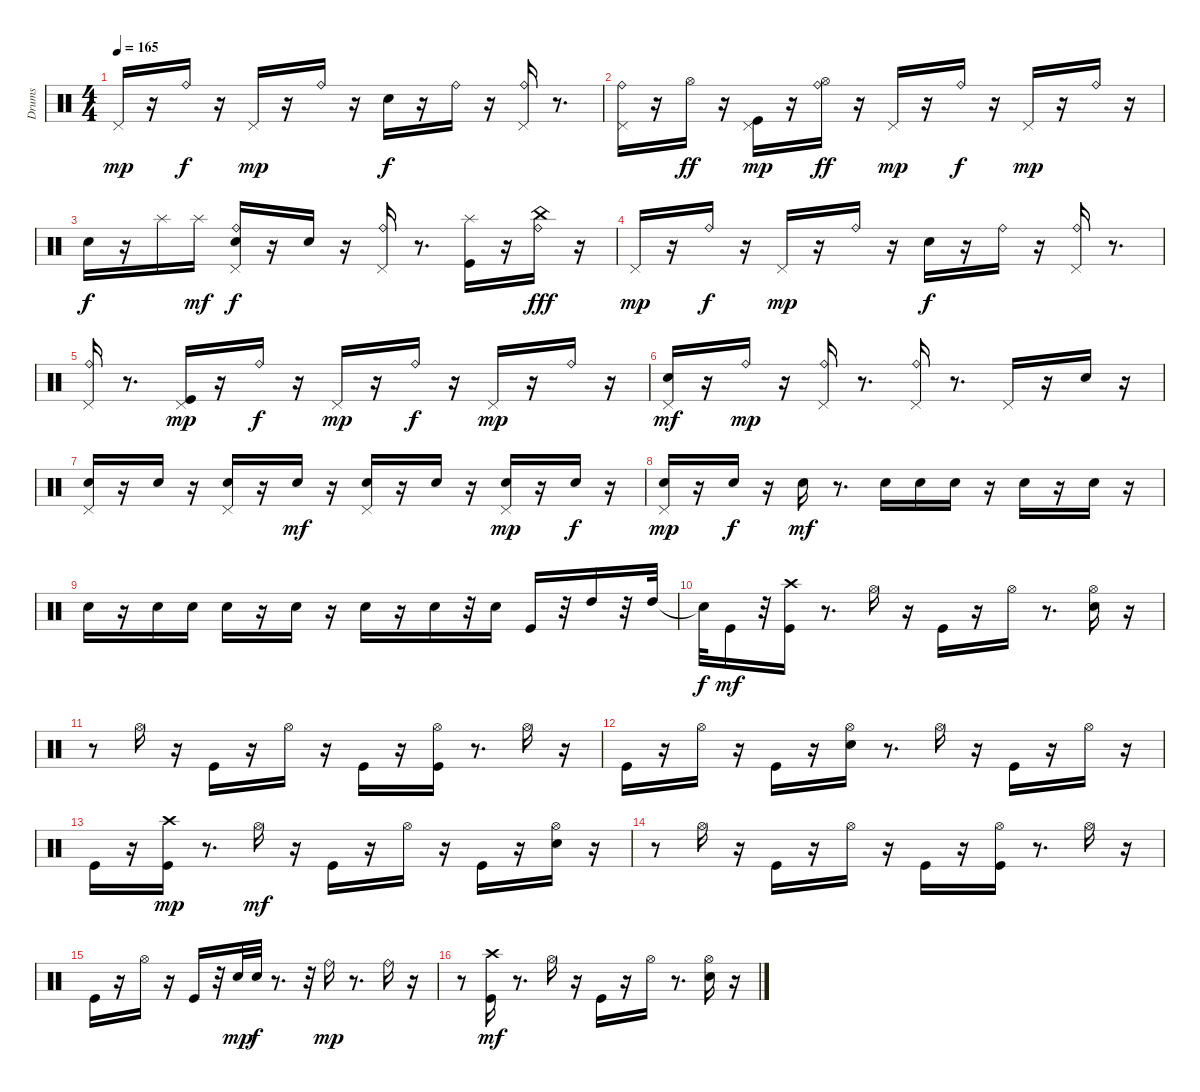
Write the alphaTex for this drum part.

\track ("Drums" "Drums") {instrument percussion}
\staff {score}
\articulation defaults
\ts (4 4)
\tempo 165
\clef neutral
\ks c "Pedal Hi-Hat (hit)".16{dy mp}
r.16 "Ride (bell)".16{dy f} r.16 "Pedal Hi-Hat (hit)".16{dy mp} r.16 "Ride (bell)".16 r.16 "Electric Snare (hit)".16{dy f} r.16 "Ride (bell)".16 r.16 ("Pedal Hi-Hat (hit)" "Ride (bell)").16 r.8{d} |
("Pedal Hi-Hat (hit)" "Ride (bell)").16 r.16 "Hi-Hat (open)".16{dy ff} r.16 ("Pedal Hi-Hat (hit)" "Kick (hit)").16{dy mp} r.16 ("Hi-Hat (open)" "Ride (bell)").16{dy ff} r.16 "Pedal Hi-Hat (hit)".16{dy mp} r.16 "Ride (bell)".16{dy f} r.16 "Pedal Hi-Hat (hit)".16{dy mp} r.16 "Ride (bell)".16 r.16 |
"Electric Snare (hit)".16{dy f} r.16 "Splash (hit)".16 "Splash (hit)".16{dy mf} ("Electric Snare (hit)" "Pedal Hi-Hat (hit)" "Ride (bell)").16{dy f} r.16 "Electric Snare (hit)".16 r.16 ("Pedal Hi-Hat (hit)" "Ride (bell)").16 r.8{d} ("Splash (hit)" "Kick (hit)").16 r.16 ("China (hit)" "Ride (bell)").16{dy fff} r.16 |
"Pedal Hi-Hat (hit)".16{dy mp} r.16 "Ride (bell)".16{dy f} r.16 "Pedal Hi-Hat (hit)".16{dy mp} r.16 "Ride (bell)".16 r.16 "Electric Snare (hit)".16{dy f} r.16 "Ride (bell)".16 r.16 ("Pedal Hi-Hat (hit)" "Ride (bell)").16 r.8{d} |
("Pedal Hi-Hat (hit)" "Ride (bell)").16 r.8{d} ("Kick (hit)" "Pedal Hi-Hat (hit)").16{dy mp} r.16 "Ride (bell)".16{dy f} r.16 "Pedal Hi-Hat (hit)".16{dy mp} r.16 "Ride (bell)".16{dy f} r.16 "Pedal Hi-Hat (hit)".16{dy mp} r.16 "Ride (bell)".16 r.16 |
("Pedal Hi-Hat (hit)" "Electric Snare (hit)").16{dy mf} r.16 "Ride (bell)".16{dy mp} r.16 ("Ride (bell)" "Pedal Hi-Hat (hit)").16 r.8{d} ("Ride (bell)" "Pedal Hi-Hat (hit)").16 r.8{d} "Pedal Hi-Hat (hit)".16 r.16 "Electric Snare (hit)".16 r.16 |
("Electric Snare (hit)" "Pedal Hi-Hat (hit)").16 r.16 "Electric Snare (hit)".16 r.16 ("Electric Snare (hit)" "Pedal Hi-Hat (hit)").16 r.16 "Electric Snare (hit)".16{dy mf} r.16 ("Pedal Hi-Hat (hit)" "Electric Snare (hit)").16 r.16 "Electric Snare (hit)".16 r.16 ("Pedal Hi-Hat (hit)" "Electric Snare (hit)").16{dy mp} r.16 "Electric Snare (hit)".16{dy f} r.16 |
("Pedal Hi-Hat (hit)" "Electric Snare (hit)").16{dy mp} r.16 "Electric Snare (hit)".16{dy f} r.16 "Electric Snare (hit)".16{dy mf} r.8{d} "Electric Snare (hit)".16 "Electric Snare (hit)".16 "Electric Snare (hit)".16 r.16 "Electric Snare (hit)".16 r.16 "Electric Snare (hit)".16 r.16 |
"Electric Snare (hit)".16 r.16 "Electric Snare (hit)".16 "Electric Snare (hit)".16 "Electric Snare (hit)".16 r.16 "Electric Snare (hit)".16 r.16 "Electric Snare (hit)".16 r.16 "Electric Snare (hit)".16 r.32 "Electric Snare (hit)".16 "Kick (hit)".16 r.32 "High Tom (hit)".16 r.32 "High Tom (hit)".32 |
"Snare (hit)"{t}.32{dy f} "Kick (hit)".16{dy mf} r.32 ("Kick (hit)" "Crash high (hit)").16 r.8{d} "Hi-Hat (open)".16 r.16 "Kick (hit)".16 r.16 "Hi-Hat (open)".16 r.8{d} ("Electric Snare (hit)" "Hi-Hat (open)").16 r.16 |
r.8 "Hi-Hat (open)".16 r.16 "Kick (hit)".16 r.16 "Hi-Hat (open)".16 r.16 "Kick (hit)".16 r.16 ("Kick (hit)" "Hi-Hat (open)").16 r.8{d} "Hi-Hat (open)".16 r.16 |
"Kick (hit)".16 r.16 "Hi-Hat (open)".16 r.16 "Kick (hit)".16 r.16 ("Hi-Hat (open)" "Electric Snare (hit)").16 r.8{d} "Hi-Hat (open)".16 r.16 "Kick (hit)".16 r.16 "Hi-Hat (open)".16 r.16 |
"Kick (hit)".16 r.16 ("Kick (hit)" "Crash high (hit)").16{dy mp} r.8{d} "Hi-Hat (open)".16{dy mf} r.16 "Kick (hit)".16 r.16 "Hi-Hat (open)".16 r.16 "Kick (hit)".16 r.16 ("Hi-Hat (open)" "Electric Snare (hit)").16 r.16 |
r.8 "Hi-Hat (open)".16 r.16 "Kick (hit)".16 r.16 "Hi-Hat (open)".16 r.16 "Kick (hit)".16 r.16 ("Hi-Hat (open)" "Kick (hit)").16 r.8{d} "Hi-Hat (open)".16 r.16 |
"Kick (hit)".16 r.16 "Hi-Hat (open)".16 r.16 "Kick (hit)".16 r.32 "Electric Snare (hit)".32{dy mp} "Electric Snare (hit)".32{dy f} r.8{d} r.32 "Ride (bell)".16{dy mp} r.8{d} "Ride (bell)".16 r.16 |
r.8 ("Kick (hit)" "Crash high (hit)").16{dy mf} r.8{d} "Hi-Hat (open)".16 r.16 "Kick (hit)".16 r.16 "Hi-Hat (open)".16 r.8{d} ("Electric Snare (hit)" "Hi-Hat (open)").16 r.16
